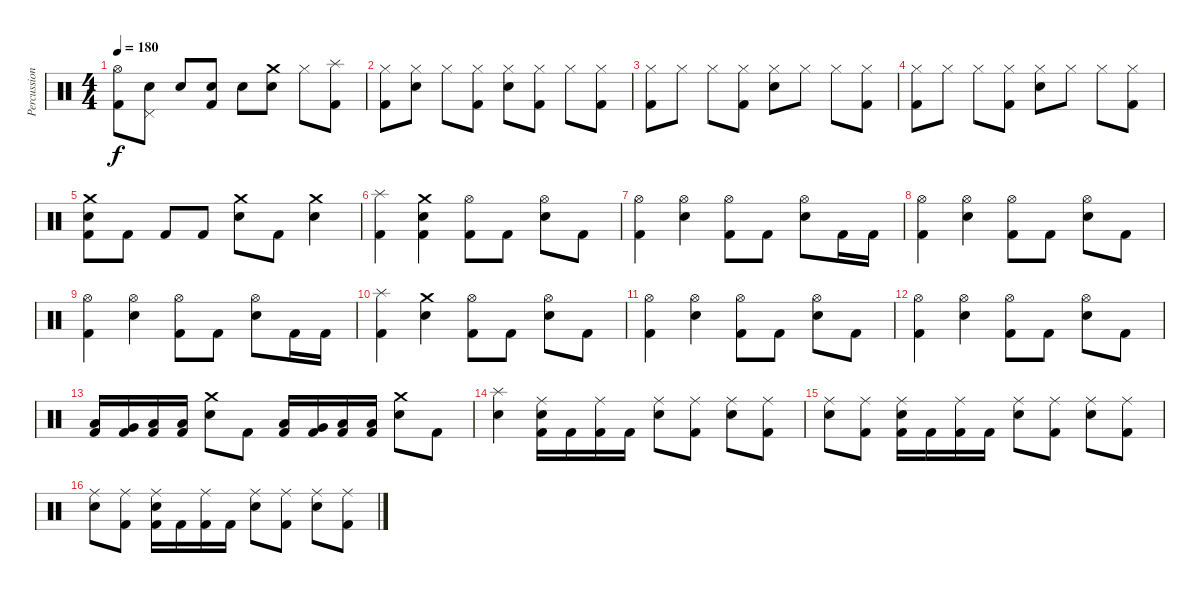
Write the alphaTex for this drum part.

\track ("Percussion" "Percussion") {instrument percussion}
\staff {score}
\articulation defaults
\ts (4 4)
\tempo 180
\clef neutral
\ks c
("Hi-Hat (open)" "Kick (hit) 2").8{dy f} ("Pedal Hi-Hat (hit)" "Electric Snare (hit)").8 "Electric Snare (hit)".8 ("Electric Snare (hit)" "Kick (hit) 2").8 "Electric Snare (hit)".8 ("Crash medium (hit)" "Electric Snare (hit)").8 "Hi-Hat (closed)".8 ("Splash (hit)" "Kick (hit) 2").8 |
("Hi-Hat (closed)" "Kick (hit) 2").8 ("Hi-Hat (closed)" "Electric Snare (hit)").8 "Hi-Hat (closed)".8 ("Hi-Hat (closed)" "Kick (hit) 2").8 ("Hi-Hat (closed)" "Electric Snare (hit)").8 ("Hi-Hat (closed)" "Kick (hit) 2").8 "Hi-Hat (closed)".8 ("Hi-Hat (closed)" "Kick (hit) 2").8 |
("Hi-Hat (closed)" "Kick (hit) 2").8 "Hi-Hat (closed)".8 "Hi-Hat (closed)".8 ("Hi-Hat (closed)" "Kick (hit) 2").8 ("Hi-Hat (closed)" "Electric Snare (hit)").8 "Hi-Hat (closed)".8 "Hi-Hat (closed)".8 ("Hi-Hat (closed)" "Kick (hit) 2").8 |
("Hi-Hat (closed)" "Kick (hit) 2").8 "Hi-Hat (closed)".8 "Hi-Hat (closed)".8 ("Hi-Hat (closed)" "Kick (hit) 2").8 ("Hi-Hat (closed)" "Electric Snare (hit)").8 "Hi-Hat (closed)".8 "Hi-Hat (closed)".8 ("Hi-Hat (closed)" "Kick (hit) 2").8 |
("Crash medium (hit)" "Electric Snare (hit)" "Kick (hit) 2").8 "Kick (hit) 2".8 "Kick (hit) 2".8 "Kick (hit) 2".8 ("Crash medium (hit)" "Electric Snare (hit)").8 "Kick (hit) 2".8 ("Crash medium (hit)" "Electric Snare (hit)").4 |
("Splash (hit)" "Kick (hit) 2").4 ("Crash medium (hit)" "Electric Snare (hit)" "Kick (hit) 2").4 ("Hi-Hat (open)" "Kick (hit) 2").8 "Kick (hit) 2".8 ("Hi-Hat (open)" "Electric Snare (hit)").8 "Kick (hit) 2".8 |
("Hi-Hat (open)" "Kick (hit) 2").4 ("Hi-Hat (open)" "Electric Snare (hit)").4 ("Hi-Hat (open)" "Kick (hit) 2").8 "Kick (hit) 2".8 ("Hi-Hat (open)" "Electric Snare (hit)").8 "Kick (hit) 2".16 "Kick (hit) 2".16 |
("Hi-Hat (open)" "Kick (hit) 2").4 ("Hi-Hat (open)" "Electric Snare (hit)").4 ("Hi-Hat (open)" "Kick (hit) 2").8 "Kick (hit) 2".8 ("Hi-Hat (open)" "Electric Snare (hit)").8 "Kick (hit) 2".8 |
("Hi-Hat (open)" "Kick (hit) 2").4 ("Hi-Hat (open)" "Electric Snare (hit)").4 ("Hi-Hat (open)" "Kick (hit) 2").8 "Kick (hit) 2".8 ("Hi-Hat (open)" "Electric Snare (hit)").8 "Kick (hit) 2".16 "Kick (hit) 2".16 |
("Splash (hit)" "Kick (hit) 2").4 ("Crash medium (hit)" "Electric Snare (hit)").4 ("Hi-Hat (open)" "Kick (hit) 2").8 "Kick (hit) 2".8 ("Hi-Hat (open)" "Electric Snare (hit)").8 "Kick (hit) 2".8 |
("Hi-Hat (open)" "Kick (hit) 2").4 ("Hi-Hat (open)" "Electric Snare (hit)").4 ("Hi-Hat (open)" "Kick (hit) 2").8 "Kick (hit) 2".8 ("Hi-Hat (open)" "Electric Snare (hit)").8 "Kick (hit) 2".8 |
("Hi-Hat (open)" "Kick (hit) 2").4 ("Hi-Hat (open)" "Electric Snare (hit)").4 ("Hi-Hat (open)" "Kick (hit) 2").8 "Kick (hit) 2".8 ("Hi-Hat (open)" "Electric Snare (hit)").8 "Kick (hit) 2".8 |
("Low Tom (hit)" "Kick (hit) 2").16 ("Very Low Tom (hit)" "Kick (hit) 2").16 ("Low Floor Tom (hit)" "Kick (hit) 2").16 ("Low Floor Tom (hit)" "Kick (hit) 2").16 ("Crash medium (hit)" "Electric Snare (hit)").8 "Kick (hit) 2".8 ("Low Tom (hit)" "Kick (hit) 2").16 ("Very Low Tom (hit)" "Kick (hit) 2").16 ("Low Floor Tom (hit)" "Kick (hit) 2").16 ("Low Floor Tom (hit)" "Kick (hit) 2").16 ("Crash medium (hit)" "Electric Snare (hit)").8 "Kick (hit) 2".8 |
("Splash (hit)" "Electric Snare (hit)").4 ("Ride (middle)" "Electric Snare (hit)" "Kick (hit) 2").16 "Kick (hit) 2".16 ("Ride (middle)" "Kick (hit) 2").16 "Kick (hit) 2".16 ("Ride (middle)" "Electric Snare (hit)").8 ("Ride (middle)" "Kick (hit) 2").8 ("Ride (middle)" "Electric Snare (hit)").8 ("Ride (middle)" "Kick (hit) 2").8 |
("Ride (middle)" "Electric Snare (hit)").8 ("Ride (middle)" "Kick (hit) 2").8 ("Ride (middle)" "Electric Snare (hit)" "Kick (hit) 2").16 "Kick (hit) 2".16 ("Ride (middle)" "Kick (hit) 2").16 "Kick (hit) 2".16 ("Ride (middle)" "Electric Snare (hit)").8 ("Ride (middle)" "Kick (hit) 2").8 ("Ride (middle)" "Electric Snare (hit)").8 ("Ride (middle)" "Kick (hit) 2").8 |
("Ride (middle)" "Electric Snare (hit)").8 ("Ride (middle)" "Kick (hit) 2").8 ("Ride (middle)" "Electric Snare (hit)" "Kick (hit) 2").16 "Kick (hit) 2".16 ("Ride (middle)" "Kick (hit) 2").16 "Kick (hit) 2".16 ("Ride (middle)" "Electric Snare (hit)").8 ("Ride (middle)" "Kick (hit) 2").8 ("Ride (middle)" "Electric Snare (hit)").8 ("Ride (middle)" "Kick (hit) 2").8
